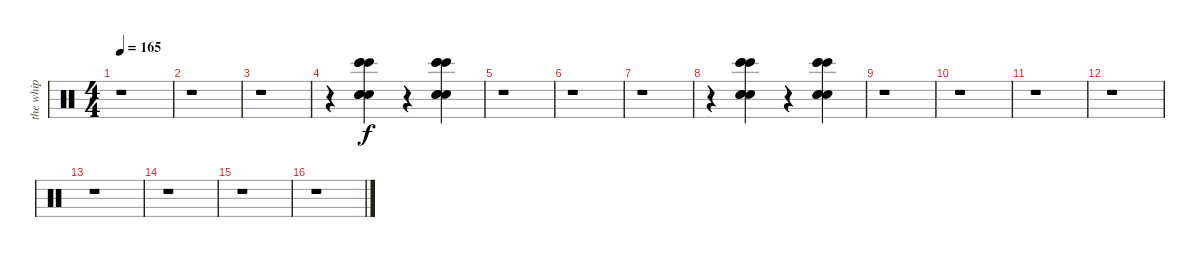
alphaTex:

\track ("the whip " "the whip ") {instrument percussion}
\staff {score}
\articulation defaults
\ts (4 4)
\tempo 165
\clef neutral
\ks c
r.1{dy f} |
r.1 |
r.1 |
r.4 ("Hand Clap (hit)" "Hand Clap (hit)" "Hand Clap (hit)" "Bongo High (hit)" "Bongo High (hit)" "Bongo High (hit)").4 r.4 ("Hand Clap (hit)" "Hand Clap (hit)" "Hand Clap (hit)" "Bongo High (hit)" "Bongo High (hit)" "Bongo High (hit)").4 |
r.1 |
r.1 |
r.1 |
r.4 ("Hand Clap (hit)" "Hand Clap (hit)" "Hand Clap (hit)" "Bongo High (hit)" "Bongo High (hit)" "Bongo High (hit)").4 r.4 ("Hand Clap (hit)" "Hand Clap (hit)" "Hand Clap (hit)" "Bongo High (hit)" "Bongo High (hit)" "Bongo High (hit)").4 |
r.1 |
r.1 |
r.1 |
r.1 |
r.1 |
r.1 |
r.1 |
r.1
